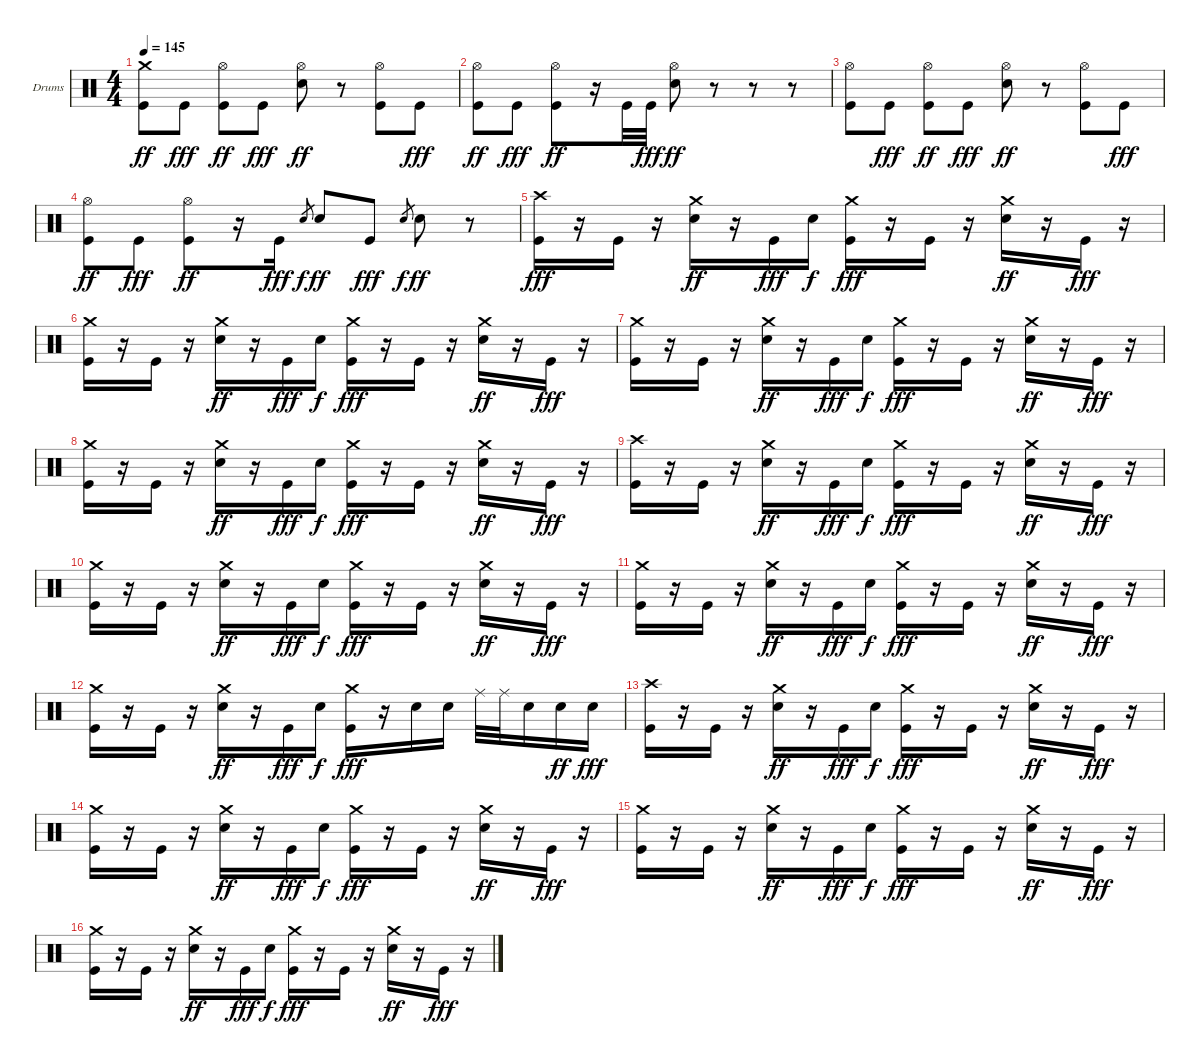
\defaultSystemsLayout 4
\bracketExtendMode groupsimilarinstruments
\firstSystemTrackNameOrientation horizontal
\otherSystemsTrackNameOrientation horizontal
\track ("Drumkit" "Drums") {instrument percussion}
\staff {score}
\articulation defaults
\ts (4 4)
\tempo 145
\clef neutral
\scale
0.333333
\ks c
("Crash medium (hit)" "Kick (hit)").8{dy ff} "Kick (hit)".8{dy fff} ("Hi-Hat (open)" "Kick (hit)").8{dy ff} "Kick (hit)".8{dy fff} ("Hi-Hat (open)" "Snare (hit) 2").8{dy ff} r.8 ("Hi-Hat (open)" "Kick (hit)").8 "Kick (hit)".8{dy fff} |
\scale
0.333333 ("Hi-Hat (open)" "Kick (hit)").8{dy ff} "Kick (hit)".8{dy fff} ("Hi-Hat (open)" "Kick (hit)").8{dy ff} r.16 "Kick (hit)".32 "Kick (hit)".32{dy fff} ("Hi-Hat (open)" "Snare (hit) 2").8{dy ff} r.8 r.8 r.8 |
\scale
0.333333 ("Hi-Hat (open)" "Kick (hit)").8 "Kick (hit)".8{dy fff} ("Hi-Hat (open)" "Kick (hit)").8{dy ff} "Kick (hit)".8{dy fff} ("Hi-Hat (open)" "Snare (hit) 2").8{dy ff} r.8 ("Hi-Hat (open)" "Kick (hit)").8 "Kick (hit)".8{dy fff} |
\scale
0.333333 ("Hi-Hat (open)" "Kick (hit)").8{dy ff} "Kick (hit)".8{dy fff} ("Hi-Hat (open)" "Kick (hit)").8{dy ff} r.16 "Kick (hit)".16{dy fff} "Snare (hit) 2".8{gr dy f} "Snare (hit) 2".8{dy ff} "Kick (hit)".8{dy fff} "Snare (hit) 2".8{gr dy f} "Snare (hit) 2".8{dy ff} r.8 |
\scale
0.333333 ("Kick (hit)" "Crash high (hit)").16{dy fff} r.16 "Kick (hit)".16 r.16 ("Snare (hit) 2" "Crash medium (hit)").16{dy ff} r.16 "Kick (hit)".16{dy fff} "Snare (hit) 2".16{dy f} ("Kick (hit)" "Crash medium (hit)").16{dy fff} r.16 "Kick (hit)".16 r.16 ("Snare (hit) 2" "Crash medium (hit)").16{dy ff} r.16 "Kick (hit)".16{dy fff} r.16 |
\scale
0.333333 ("Kick (hit)" "Crash medium (hit)").16 r.16 "Kick (hit)".16 r.16 ("Snare (hit) 2" "Crash medium (hit)").16{dy ff} r.16 "Kick (hit)".16{dy fff} "Snare (hit) 2".16{dy f} ("Kick (hit)" "Crash medium (hit)").16{dy fff} r.16 "Kick (hit)".16 r.16 ("Snare (hit) 2" "Crash medium (hit)").16{dy ff} r.16 "Kick (hit)".16{dy fff} r.16 |
\scale
0.333333 ("Kick (hit)" "Crash medium (hit)").16 r.16 "Kick (hit)".16 r.16 ("Snare (hit) 2" "Crash medium (hit)").16{dy ff} r.16 "Kick (hit)".16{dy fff} "Snare (hit) 2".16{dy f} ("Kick (hit)" "Crash medium (hit)").16{dy fff} r.16 "Kick (hit)".16 r.16 ("Snare (hit) 2" "Crash medium (hit)").16{dy ff} r.16 "Kick (hit)".16{dy fff} r.16 |
\scale
0.333333 ("Kick (hit)" "Crash medium (hit)").16 r.16 "Kick (hit)".16 r.16 ("Snare (hit) 2" "Crash medium (hit)").16{dy ff} r.16 "Kick (hit)".16{dy fff} "Snare (hit) 2".16{dy f} ("Kick (hit)" "Crash medium (hit)").16{dy fff} r.16 "Kick (hit)".16 r.16 ("Snare (hit) 2" "Crash medium (hit)").16{dy ff} r.16 "Kick (hit)".16{dy fff} r.16 |
\scale
0.333333 ("Kick (hit)" "Crash high (hit)").16 r.16 "Kick (hit)".16 r.16 ("Snare (hit) 2" "Crash medium (hit)").16{dy ff} r.16 "Kick (hit)".16{dy fff} "Snare (hit) 2".16{dy f} ("Kick (hit)" "Crash medium (hit)").16{dy fff} r.16 "Kick (hit)".16 r.16 ("Snare (hit) 2" "Crash medium (hit)").16{dy ff} r.16 "Kick (hit)".16{dy fff} r.16 |
\scale
0.333333 ("Kick (hit)" "Crash medium (hit)").16 r.16 "Kick (hit)".16 r.16 ("Snare (hit) 2" "Crash medium (hit)").16{dy ff} r.16 "Kick (hit)".16{dy fff} "Snare (hit) 2".16{dy f} ("Kick (hit)" "Crash medium (hit)").16{dy fff} r.16 "Kick (hit)".16 r.16 ("Snare (hit) 2" "Crash medium (hit)").16{dy ff} r.16 "Kick (hit)".16{dy fff} r.16 |
\scale
0.333333 ("Kick (hit)" "Crash medium (hit)").16 r.16 "Kick (hit)".16 r.16 ("Snare (hit) 2" "Crash medium (hit)").16{dy ff} r.16 "Kick (hit)".16{dy fff} "Snare (hit) 2".16{dy f} ("Kick (hit)" "Crash medium (hit)").16{dy fff} r.16 "Kick (hit)".16 r.16 ("Snare (hit) 2" "Crash medium (hit)").16{dy ff} r.16 "Kick (hit)".16{dy fff} r.16 |
\scale
0.333333 ("Kick (hit)" "Crash medium (hit)").16 r.16 "Kick (hit)".16 r.16 ("Snare (hit) 2" "Crash medium (hit)").16{dy ff} r.16 "Kick (hit)".16{dy fff} "Snare (hit) 2".16{dy f} ("Kick (hit)" "Crash medium (hit)").16{dy fff} r.16 "Snare (hit) 2".16 "Snare (hit) 2".16 "Ride (middle)".32 "Ride (middle)".32 "Snare (hit) 2".16 "Snare (hit) 2".16{dy ff} "Snare (hit) 2".16{dy fff} |
\scale
0.333333 ("Kick (hit)" "Crash high (hit)").16 r.16 "Kick (hit)".16 r.16 ("Snare (hit) 2" "Crash medium (hit)").16{dy ff} r.16 "Kick (hit)".16{dy fff} "Snare (hit) 2".16{dy f} ("Kick (hit)" "Crash medium (hit)").16{dy fff} r.16 "Kick (hit)".16 r.16 ("Snare (hit) 2" "Crash medium (hit)").16{dy ff} r.16 "Kick (hit)".16{dy fff} r.16 |
\scale
0.333333 ("Kick (hit)" "Crash medium (hit)").16 r.16 "Kick (hit)".16 r.16 ("Snare (hit) 2" "Crash medium (hit)").16{dy ff} r.16 "Kick (hit)".16{dy fff} "Snare (hit) 2".16{dy f} ("Kick (hit)" "Crash medium (hit)").16{dy fff} r.16 "Kick (hit)".16 r.16 ("Snare (hit) 2" "Crash medium (hit)").16{dy ff} r.16 "Kick (hit)".16{dy fff} r.16 |
\scale
0.333333 ("Kick (hit)" "Crash medium (hit)").16 r.16 "Kick (hit)".16 r.16 ("Snare (hit) 2" "Crash medium (hit)").16{dy ff} r.16 "Kick (hit)".16{dy fff} "Snare (hit) 2".16{dy f} ("Kick (hit)" "Crash medium (hit)").16{dy fff} r.16 "Kick (hit)".16 r.16 ("Snare (hit) 2" "Crash medium (hit)").16{dy ff} r.16 "Kick (hit)".16{dy fff} r.16 |
\scale
0.333333 ("Kick (hit)" "Crash medium (hit)").16 r.16 "Kick (hit)".16 r.16 ("Snare (hit) 2" "Crash medium (hit)").16{dy ff} r.16 "Kick (hit)".16{dy fff} "Snare (hit) 2".16{dy f} ("Kick (hit)" "Crash medium (hit)").16{dy fff} r.16 "Kick (hit)".16 r.16 ("Snare (hit) 2" "Crash medium (hit)").16{dy ff} r.16 "Kick (hit)".16{dy fff} r.16
